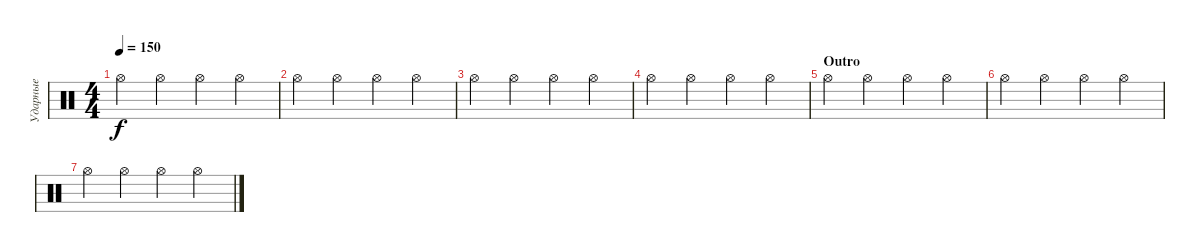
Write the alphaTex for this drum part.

\track ("Ударные" "Ударные") {instrument percussion}
\staff {score}
\articulation defaults
\ts (4 4)
\tempo 150
\clef neutral
\ks c "Hi-Hat (open)".4{dy f} "Hi-Hat (open)".4 "Hi-Hat (open)".4 "Hi-Hat (open)".4
|
"Hi-Hat (open)".4 "Hi-Hat (open)".4 "Hi-Hat (open)".4 "Hi-Hat (open)".4 |
"Hi-Hat (open)".4 "Hi-Hat (open)".4 "Hi-Hat (open)".4 "Hi-Hat (open)".4 |
"Hi-Hat (open)".4 "Hi-Hat (open)".4 "Hi-Hat (open)".4 "Hi-Hat (open)".4 |
\section ("" "Outro")
"Hi-Hat (open)".4 "Hi-Hat (open)".4 "Hi-Hat (open)".4 "Hi-Hat (open)".4 |
"Hi-Hat (open)".4 "Hi-Hat (open)".4 "Hi-Hat (open)".4 "Hi-Hat (open)".4 |
"Hi-Hat (open)".4 "Hi-Hat (open)".4 "Hi-Hat (open)".4 "Hi-Hat (open)".4
